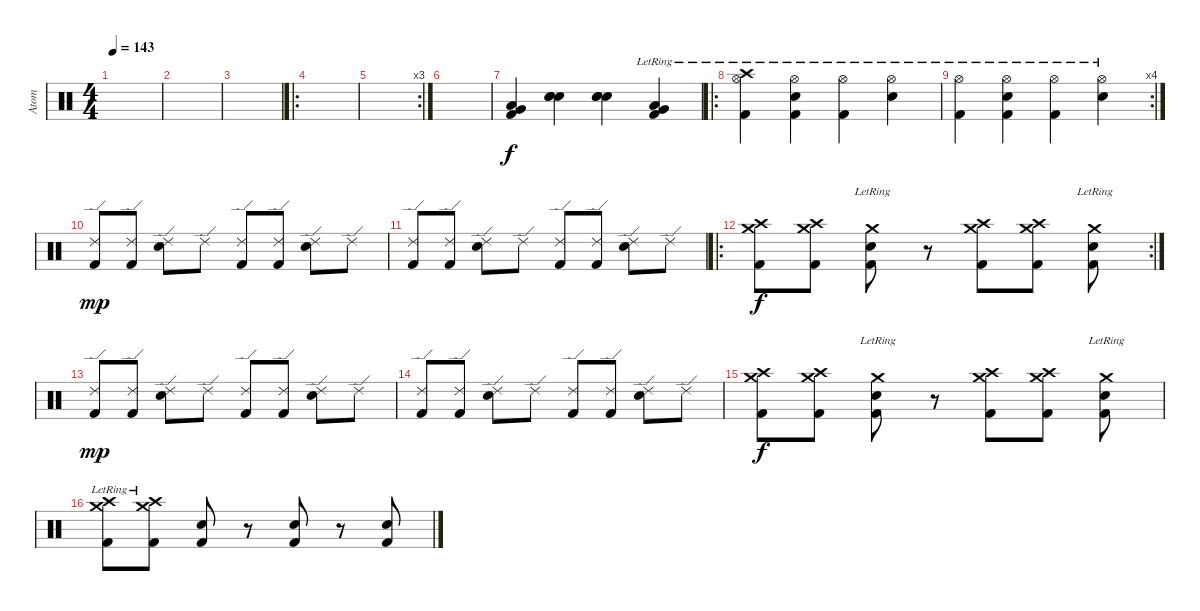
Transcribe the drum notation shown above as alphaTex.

\track ("Atom" "Atom") {instrument percussion}
\staff {score}
\articulation defaults
\ts (4 4)
\tempo 143
\clef neutral
\ks c
|
|
|
\ro
|
\rc 3
|
|
("Very Low Tom (hit)"{x} "Low Tom (hit)"{x} "Kick (hit) 2"{x}).4 ("Snare (hit)"{x} "Snare (hit)"{x} "Snare (hit)"{x}).4 ("Snare (hit)"{x} "Snare (hit)"{x} "Snare (hit)"{x}).4 ("Very Low Tom (hit)"{lr} "Low Tom (hit)"{lr} "Kick (hit) 2"{lr}).4 |
\ro
("Kick (hit) 2" "Hi-Hat (open)"{lr} "Crash high (hit)"{lr}).4 ("Kick (hit) 2" "Hi-Hat (open)"{lr} "Snare (hit) 2").4 ("Kick (hit) 2" "Hi-Hat (open)"{lr}).4 ("Hi-Hat (open)"{lr} "Snare (hit) 2").4 |
\rc 4
("Kick (hit) 2" "Hi-Hat (open)"{lr}).4 ("Kick (hit) 2" "Hi-Hat (open)"{lr} "Snare (hit) 2").4 ("Kick (hit) 2" "Hi-Hat (open)"{lr}).4 ("Hi-Hat (open)"{lr} "Snare (hit) 2").4 |
("Kick (hit) 2" "Ride (edge) 2").8{dy mp} ("Kick (hit) 2" "Ride (edge) 2").8 ("Ride (edge) 2" "Snare (hit) 2").8 "Ride (edge) 2".8 ("Kick (hit) 2" "Ride (edge) 2").8 ("Kick (hit) 2" "Ride (edge) 2").8 ("Ride (edge) 2" "Snare (hit) 2").8 "Ride (edge) 2".8 |
("Kick (hit) 2" "Ride (edge) 2").8 ("Kick (hit) 2" "Ride (edge) 2").8 ("Ride (edge) 2" "Snare (hit) 2").8 "Ride (edge) 2".8 ("Kick (hit) 2" "Ride (edge) 2").8 ("Kick (hit) 2" "Ride (edge) 2").8 ("Ride (edge) 2" "Snare (hit) 2").8 "Ride (edge) 2".8 |
\ro
\rc 2
("Kick (hit) 2" "Crash medium (hit)" "Crash high (hit)").8{dy f} ("Kick (hit) 2" "Crash medium (hit)" "Crash high (hit)").8 ("Kick (hit) 2" "Crash medium (hit)"{lr} "Snare (hit) 2").8 r.8 ("Kick (hit) 2" "Crash medium (hit)" "Crash high (hit)").8 ("Kick (hit) 2" "Crash medium (hit)" "Crash high (hit)").8 ("Kick (hit) 2" "Crash medium (hit)"{lr} "Snare (hit) 2").8 |
("Kick (hit) 2" "Ride (edge) 2").8{dy mp} ("Kick (hit) 2" "Ride (edge) 2").8 ("Ride (edge) 2" "Snare (hit) 2").8 "Ride (edge) 2".8 ("Kick (hit) 2" "Ride (edge) 2").8 ("Kick (hit) 2" "Ride (edge) 2").8 ("Ride (edge) 2" "Snare (hit) 2").8 "Ride (edge) 2".8 |
("Kick (hit) 2" "Ride (edge) 2").8 ("Kick (hit) 2" "Ride (edge) 2").8 ("Ride (edge) 2" "Snare (hit) 2").8 "Ride (edge) 2".8 ("Kick (hit) 2" "Ride (edge) 2").8 ("Kick (hit) 2" "Ride (edge) 2").8 ("Ride (edge) 2" "Snare (hit) 2").8 "Ride (edge) 2".8 |
("Kick (hit) 2" "Crash medium (hit)" "Crash high (hit)").8{dy f} ("Kick (hit) 2" "Crash medium (hit)" "Crash high (hit)").8 ("Kick (hit) 2" "Crash medium (hit)"{lr} "Snare (hit) 2").8 r.8 ("Kick (hit) 2" "Crash medium (hit)" "Crash high (hit)").8 ("Kick (hit) 2" "Crash medium (hit)" "Crash high (hit)").8 ("Kick (hit) 2" "Crash medium (hit)"{lr} "Snare (hit) 2").8 |
("Kick (hit) 2" "Crash medium (hit)"{lr} "Crash high (hit)"{lr}).8 ("Kick (hit) 2" "Crash medium (hit)"{lr} "Crash high (hit)"{lr}).8 ("Kick (hit) 2" "Snare (hit) 2").8 r.8 ("Kick (hit) 2" "Snare (hit) 2").8 r.8 ("Kick (hit) 2" "Snare (hit) 2").8
